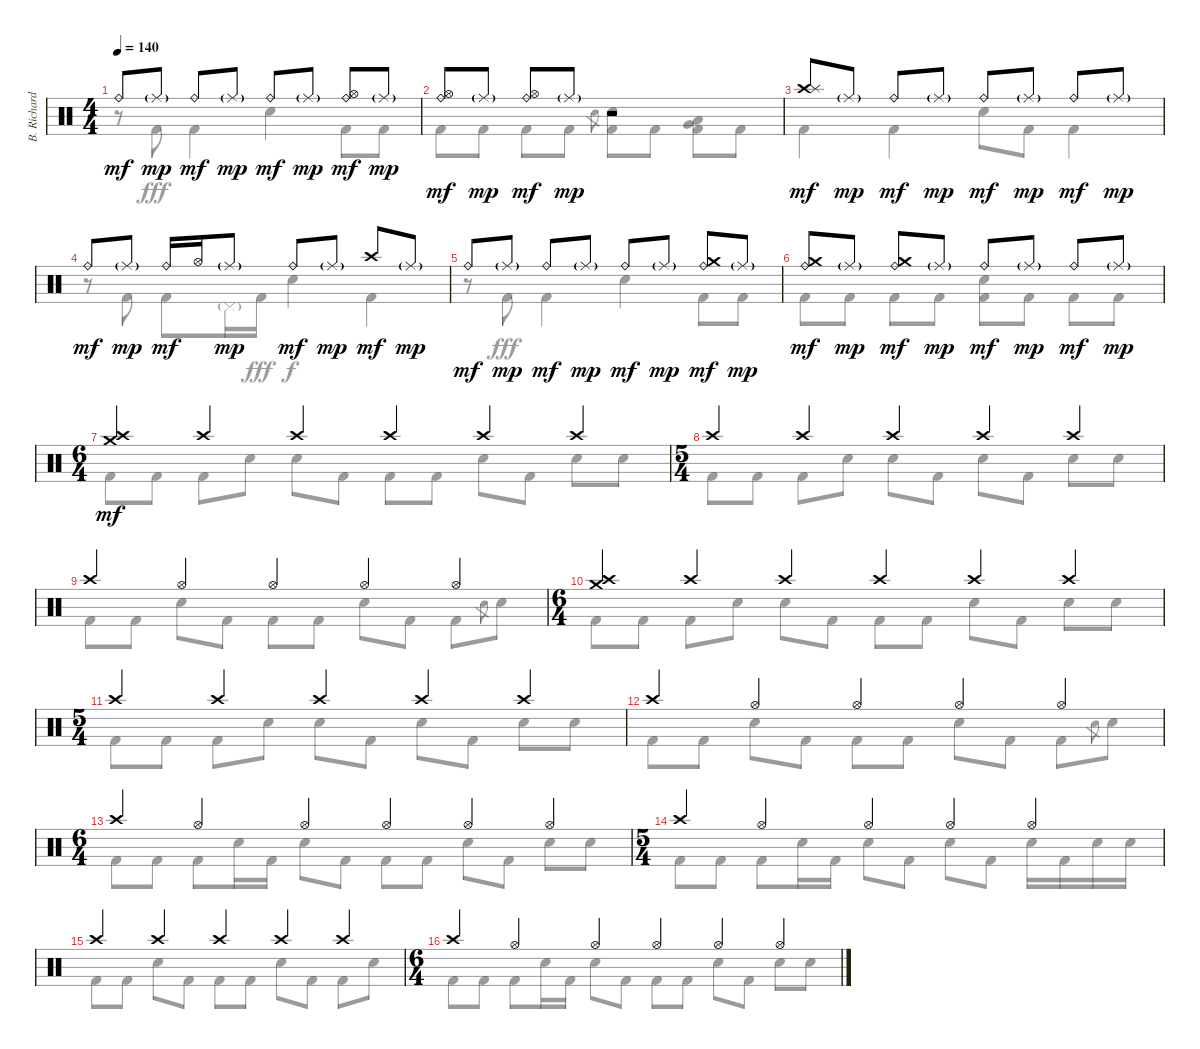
\track ("B. Richardson Drums" "B. Richard") {instrument percussion}
\staff {score}
\articulation defaults
\voice
\ts (4 4)
\tempo 140
\clef neutral
\ks c "Ride (bell)".8{dy mf} "Ride (middle)"{g}.8{dy mp} "Ride (bell)".8{dy mf} "Ride (middle)"{g}.8{dy mp} "Ride (bell)".8{dy mf} "Ride (middle)"{g}.8{dy mp}
("Ride (bell)" "Hi-Hat (open)").8{dy mf} "Ride (middle)"{g}.8{dy mp} |
("Ride (bell)" "Hi-Hat (open)").8{dy mf} "Ride (middle)"{g}.8{dy mp} ("Ride (bell)" "Hi-Hat (open)").8{dy mf} "Ride (middle)"{g}.8{dy mp} r.2 |
("Crash high (hit)" "Splash (hit)").8{dy mf} "Ride (middle)"{g}.8{dy mp} "Ride (bell)".8{dy mf} "Ride (middle)"{g}.8{dy mp} "Ride (bell)".8{dy mf} "Ride (middle)"{g}.8{dy mp} "Ride (bell)".8{dy mf} "Ride (middle)"{g}.8{dy mp} |
"Ride (bell)".8{dy mf} "Ride (middle)"{g}.8{dy mp} "Ride (bell)".16{dy mf} "Hi-Hat (open)".16 "Ride (middle)"{g}.8{dy mp} "Ride (bell)".8{dy mf} "Ride (middle)"{g}.8{dy mp} "Crash high (hit)".8{dy mf} "Ride (middle)"{g}.8{dy mp} |
"Ride (bell)".8{dy mf} "Ride (middle)"{g}.8{dy mp} "Ride (bell)".8{dy mf} "Ride (middle)"{g}.8{dy mp} "Ride (bell)".8{dy mf} "Ride (middle)"{g}.8{dy mp} ("Ride (bell)" "Crash medium (hit)").8{dy mf} "Ride (middle)"{g}.8{dy mp} |
("Ride (bell)" "Crash medium (hit)").8{dy mf} "Ride (middle)"{g}.8{dy mp} ("Ride (bell)" "Crash medium (hit)").8{dy mf} "Ride (middle)"{g}.8{dy mp} "Ride (bell)".8{dy mf} "Ride (middle)"{g}.8{dy mp} "Ride (bell)".8{dy mf} "Ride (middle)"{g}.8{dy mp} |
\ts (6 4)
("Crash high (hit)" "Crash medium (hit)").4{dy mf} "Crash high (hit)".4 "Crash high (hit)".4 "Crash high (hit)".4 "Crash high (hit)".4 "Crash high (hit)".4 |
\ts (5 4)
"Crash high (hit)".4 "Crash high (hit)".4 "Crash high (hit)".4 "Crash high (hit)".4 "Crash high (hit)".4 |
"Crash high (hit)".4 "Hi-Hat (open)".4 "Hi-Hat (open)".4 "Hi-Hat (open)".4 "Hi-Hat (open)".4 |
\ts (6 4)
("Crash high (hit)" "Crash medium (hit)").4 "Crash high (hit)".4 "Crash high (hit)".4 "Crash high (hit)".4 "Crash high (hit)".4 "Crash high (hit)".4 |
\ts (5 4)
"Crash high (hit)".4 "Crash high (hit)".4 "Crash high (hit)".4 "Crash high (hit)".4 "Crash high (hit)".4 |
"Crash high (hit)".4 "Hi-Hat (open)".4 "Hi-Hat (open)".4 "Hi-Hat (open)".4 "Hi-Hat (open)".4 |
\ts (6 4)
"Crash high (hit)".4 "Hi-Hat (open)".4 "Hi-Hat (open)".4 "Hi-Hat (open)".4 "Hi-Hat (open)".4 "Hi-Hat (open)".4 |
\ts (5 4)
"Crash high (hit)".4 "Hi-Hat (open)".4 "Hi-Hat (open)".4 "Hi-Hat (open)".4 "Hi-Hat (open)".4 |
"Crash high (hit)".4 "Crash high (hit)".4 "Crash high (hit)".4 "Crash high (hit)".4 "Crash high (hit)".4 |
\ts (6 4)
"Crash high (hit)".4 "Hi-Hat (open)".4 "Hi-Hat (open)".4 "Hi-Hat (open)".4 "Hi-Hat (open)".4 "Hi-Hat (open)".4
\voice
\clef neutral
\ottava regular
\simile none
\ks c
r.8{dy f} "Kick (hit) 2".8{dy fff} "Kick (hit) 2".4 "Electric Snare (hit)".4 "Kick (hit) 2".8 "Kick (hit) 2".8 |
"Kick (hit) 2".8 "Kick (hit) 2".8 "Kick (hit) 2".8 "Kick (hit) 2".8 "Electric Snare (hit)".8{gr} ("Electric Snare (hit)" "Kick (hit) 2").8 "Kick (hit) 2".8 ("Low Tom (hit)" "Very Low Tom (hit)" "Kick (hit) 2").8 "Kick (hit) 2".8 |
"Kick (hit) 2".4 "Kick (hit) 2".4 "Electric Snare (hit)".8 "Kick (hit) 2".8 "Kick (hit) 2".4 |
r.8 "Kick (hit) 2".8 "Kick (hit) 2".8 "Pedal Hi-Hat (hit)"{g}.16{dy mp} "Kick (hit) 2".16{dy fff} "Electric Snare (hit)".4{dy f} "Kick (hit) 2".4 |
r.8 "Kick (hit) 2".8{dy fff} "Kick (hit) 2".4 "Electric Snare (hit)".4 "Kick (hit) 2".8 "Kick (hit) 2".8 |
"Kick (hit) 2".8 "Kick (hit) 2".8 "Kick (hit) 2".8 "Kick (hit) 2".8 ("Electric Snare (hit)" "Kick (hit) 2").8 "Kick (hit) 2".8 "Kick (hit) 2".8 "Kick (hit) 2".8 |
"Kick (hit) 2".8 "Kick (hit) 2".8 "Kick (hit) 2".8 "Electric Snare (hit)".8 "Electric Snare (hit)".8 "Kick (hit) 2".8 "Kick (hit) 2".8 "Kick (hit) 2".8 "Electric Snare (hit)".8 "Kick (hit) 2".8 "Electric Snare (hit)".8 "Electric Snare (hit)".8 |
"Kick (hit) 2".8 "Kick (hit) 2".8 "Kick (hit) 2".8 "Electric Snare (hit)".8 "Electric Snare (hit)".8 "Kick (hit) 2".8 "Electric Snare (hit)".8 "Kick (hit) 2".8 "Electric Snare (hit)".8 "Electric Snare (hit)".8 |
"Kick (hit) 2".8 "Kick (hit) 2".8 "Electric Snare (hit)".8 "Kick (hit) 2".8 "Kick (hit) 2".8 "Kick (hit) 2".8 "Electric Snare (hit)".8 "Kick (hit) 2".8 "Kick (hit) 2".8 "Electric Snare (hit)".8{gr} "Electric Snare (hit)".8 |
"Kick (hit) 2".8 "Kick (hit) 2".8 "Kick (hit) 2".8 "Electric Snare (hit)".8 "Electric Snare (hit)".8 "Kick (hit) 2".8 "Kick (hit) 2".8 "Kick (hit) 2".8 "Electric Snare (hit)".8 "Kick (hit) 2".8 "Electric Snare (hit)".8 "Electric Snare (hit)".8 |
"Kick (hit) 2".8 "Kick (hit) 2".8 "Kick (hit) 2".8 "Electric Snare (hit)".8 "Electric Snare (hit)".8 "Kick (hit) 2".8 "Electric Snare (hit)".8 "Kick (hit) 2".8 "Electric Snare (hit)".8 "Electric Snare (hit)".8 |
"Kick (hit) 2".8 "Kick (hit) 2".8 "Electric Snare (hit)".8 "Kick (hit) 2".8 "Kick (hit) 2".8 "Kick (hit) 2".8 "Electric Snare (hit)".8 "Kick (hit) 2".8 "Kick (hit) 2".8 "Electric Snare (hit)".8{gr} "Electric Snare (hit)".8 |
"Kick (hit) 2".8 "Kick (hit) 2".8 "Kick (hit) 2".8 "Electric Snare (hit)".16 "Kick (hit) 2".16 "Electric Snare (hit)".8 "Kick (hit) 2".8 "Kick (hit) 2".8 "Kick (hit) 2".8 "Electric Snare (hit)".8 "Kick (hit) 2".8 "Electric Snare (hit)".8 "Electric Snare (hit)".8 |
"Kick (hit) 2".8 "Kick (hit) 2".8 "Kick (hit) 2".8 "Electric Snare (hit)".16 "Kick (hit) 2".16 "Electric Snare (hit)".8 "Kick (hit) 2".8 "Electric Snare (hit)".8 "Kick (hit) 2".8 "Electric Snare (hit)".16 "Kick (hit) 2".16 "Electric Snare (hit)".16 "Electric Snare (hit)".16 |
"Kick (hit) 2".8 "Kick (hit) 2".8 "Electric Snare (hit)".8 "Kick (hit) 2".8 "Kick (hit) 2".8 "Kick (hit) 2".8 "Electric Snare (hit)".8 "Kick (hit) 2".8 "Kick (hit) 2".8 "Electric Snare (hit)".8 |
"Kick (hit) 2".8 "Kick (hit) 2".8 "Kick (hit) 2".8 "Electric Snare (hit)".16 "Kick (hit) 2".16 "Electric Snare (hit)".8 "Kick (hit) 2".8 "Kick (hit) 2".8 "Kick (hit) 2".8 "Electric Snare (hit)".8 "Kick (hit) 2".8 "Electric Snare (hit)".8 "Electric Snare (hit)".8
